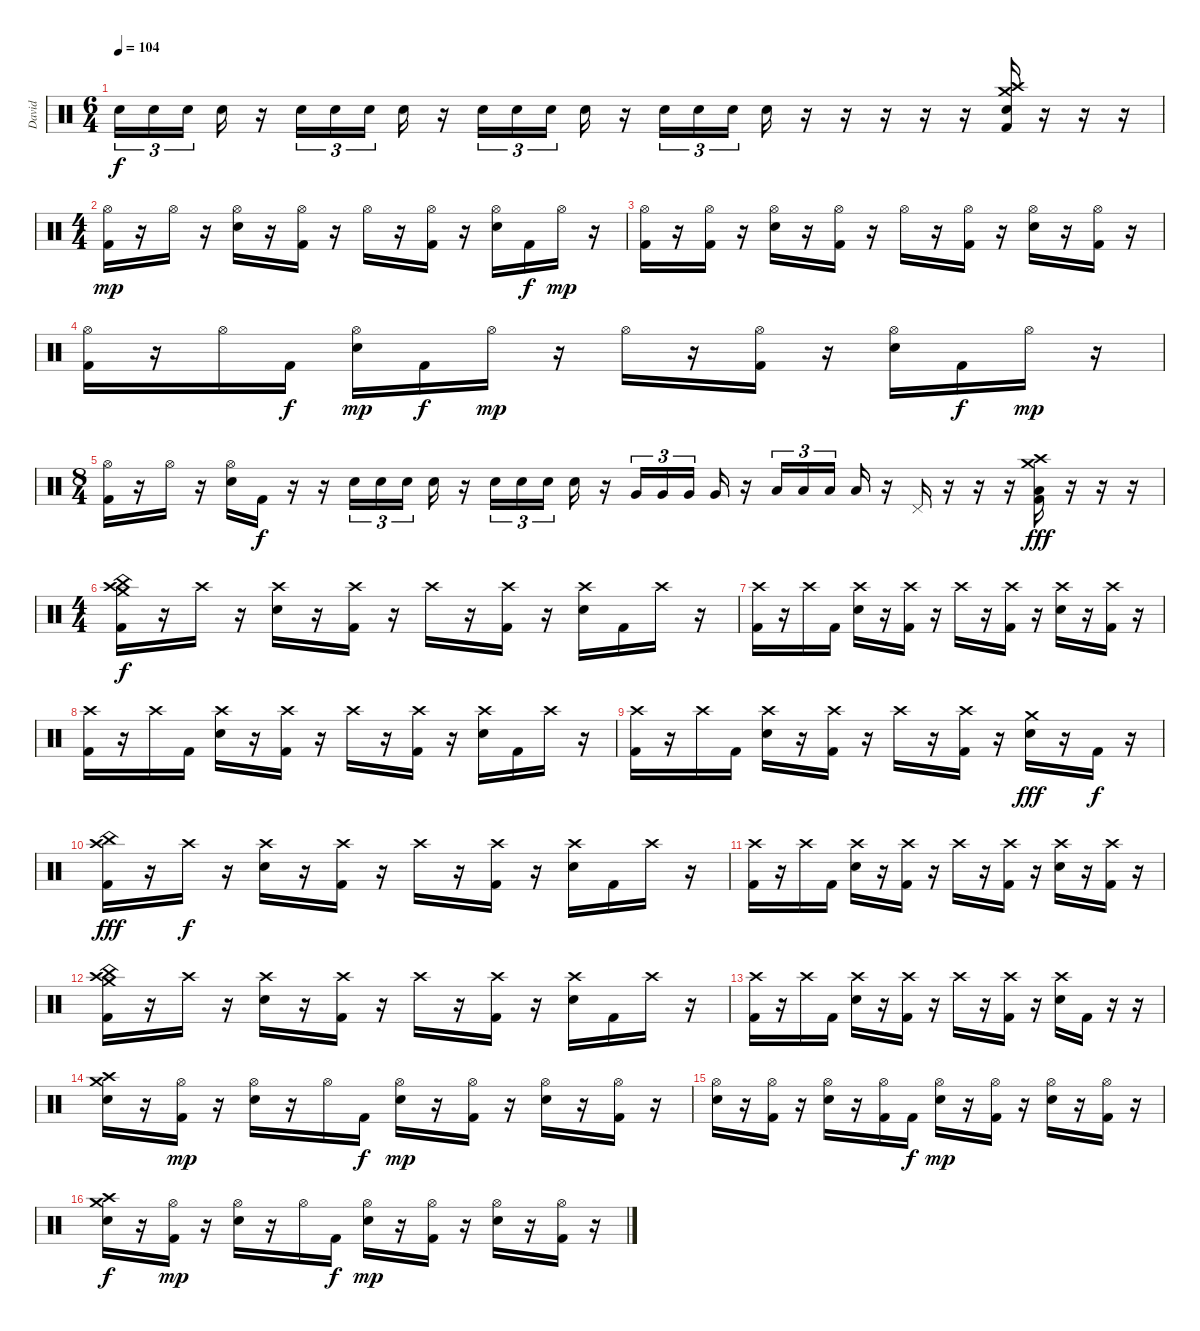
\track ("David" "David") {instrument percussion}
\staff {score}
\articulation defaults
\ts (6 4)
\tempo 104
\clef neutral
\ks c "Snare (hit) 2".16{tu (3 2) dy f} "Snare (hit) 2".16{tu (3 2)} "Snare (hit) 2".16{tu (3 2)} "Snare (hit) 2".16
r.16 "Snare (hit) 2".16{tu (3 2)} "Snare (hit) 2".16{tu (3 2)} "Snare (hit) 2".16{tu (3 2)} "Snare (hit) 2".16 r.16 "Snare (hit) 2".16{tu (3 2)} "Snare (hit) 2".16{tu (3 2)} "Snare (hit) 2".16{tu (3 2)} "Snare (hit) 2".16 r.16 "Snare (hit) 2".16{tu (3 2)} "Snare (hit) 2".16{tu (3 2)} "Snare (hit) 2".16{tu (3 2)} "Snare (hit) 2".16 r.16 r.16 r.16 r.16 r.16 ("Crash medium (hit)" "Crash high (hit)" "Snare (hit) 2" "Kick (hit) 2").16 r.16 r.16 r.16 |
\ts (4 4)
("Hi-Hat (open)" "Kick (hit) 2").16{dy mp} r.16 "Hi-Hat (open)".16 r.16 ("Hi-Hat (open)" "Snare (hit) 2").16 r.16 ("Hi-Hat (open)" "Kick (hit) 2").16 r.16 "Hi-Hat (open)".16 r.16 ("Hi-Hat (open)" "Kick (hit) 2").16 r.16 ("Hi-Hat (open)" "Snare (hit) 2").16 "Kick (hit) 2".16{dy f} "Hi-Hat (open)".16{dy mp} r.16 |
("Hi-Hat (open)" "Kick (hit) 2").16 r.16 ("Hi-Hat (open)" "Kick (hit) 2").16 r.16 ("Hi-Hat (open)" "Snare (hit) 2").16 r.16 ("Hi-Hat (open)" "Kick (hit) 2").16 r.16 "Hi-Hat (open)".16 r.16 ("Hi-Hat (open)" "Kick (hit) 2").16 r.16 ("Hi-Hat (open)" "Snare (hit) 2").16 r.16 ("Hi-Hat (open)" "Kick (hit) 2").16 r.16 |
("Hi-Hat (open)" "Kick (hit) 2").16 r.16 "Hi-Hat (open)".16 "Kick (hit) 2".16{dy f} ("Hi-Hat (open)" "Snare (hit) 2").16{dy mp} "Kick (hit) 2".16{dy f} "Hi-Hat (open)".16{dy mp} r.16 "Hi-Hat (open)".16 r.16 ("Hi-Hat (open)" "Kick (hit) 2").16 r.16 ("Hi-Hat (open)" "Snare (hit) 2").16 "Kick (hit) 2".16{dy f} "Hi-Hat (open)".16{dy mp} r.16 |
\ts (8 4)
("Hi-Hat (open)" "Kick (hit) 2").16 r.16 "Hi-Hat (open)".16 r.16 ("Hi-Hat (open)" "Snare (hit) 2").16 "Kick (hit) 2".16{dy f} r.16 r.16 "Snare (hit) 2".16{tu (3 2)} "Snare (hit) 2".16{tu (3 2)} "Snare (hit) 2".16{tu (3 2)} "Snare (hit) 2".16 r.16 "Snare (hit) 2".16{tu (3 2)} "Snare (hit) 2".16{tu (3 2)} "Snare (hit) 2".16{tu (3 2)} "Snare (hit) 2".16 r.16 "Very Low Tom (hit)".16{tu (3 2)} "Very Low Tom (hit)".16{tu (3 2)} "Very Low Tom (hit)".16{tu (3 2)} "Very Low Tom (hit)".16 r.16 "Low Floor Tom (hit)".16{tu (3 2)} "Low Floor Tom (hit)".16{tu (3 2)} "Low Floor Tom (hit)".16{tu (3 2)} "Low Floor Tom (hit)".16 r.16 "Pedal Hi-Hat (hit)".16 r.16 r.16 r.16 ("Crash medium (hit)" "Crash high (hit)" "Low Floor Tom (hit)" "Kick (hit) 2").16{dy fff} r.16 r.16 r.16 |
\ts (4 4)
("Crash medium (hit)" "Crash high (hit)" "China (hit)" "Kick (hit) 2").16{dy f} r.16 "Crash high (hit)".16 r.16 ("Crash high (hit)" "Snare (hit) 2").16 r.16 ("Crash high (hit)" "Kick (hit) 2").16 r.16 "Crash high (hit)".16 r.16 ("Crash high (hit)" "Kick (hit) 2").16 r.16 ("Crash high (hit)" "Snare (hit) 2").16 "Kick (hit) 2".16 "Crash high (hit)".16 r.16 |
("Crash high (hit)" "Kick (hit) 2").16 r.16 "Crash high (hit)".16 "Kick (hit) 2".16 ("Crash high (hit)" "Snare (hit) 2").16 r.16 ("Crash high (hit)" "Kick (hit) 2").16 r.16 "Crash high (hit)".16 r.16 ("Crash high (hit)" "Kick (hit) 2").16 r.16 ("Crash high (hit)" "Snare (hit) 2").16 r.16 ("Crash high (hit)" "Kick (hit) 2").16 r.16 |
("Crash high (hit)" "Kick (hit) 2").16 r.16 "Crash high (hit)".16 "Kick (hit) 2".16 ("Crash high (hit)" "Snare (hit) 2").16 r.16 ("Crash high (hit)" "Kick (hit) 2").16 r.16 "Crash high (hit)".16 r.16 ("Crash high (hit)" "Kick (hit) 2").16 r.16 ("Crash high (hit)" "Snare (hit) 2").16 "Kick (hit) 2".16 "Crash high (hit)".16 r.16 |
("Crash high (hit)" "Kick (hit) 2").16 r.16 "Crash high (hit)".16 "Kick (hit) 2".16 ("Crash high (hit)" "Snare (hit) 2").16 r.16 ("Crash high (hit)" "Kick (hit) 2").16 r.16 "Crash high (hit)".16 r.16 ("Crash high (hit)" "Kick (hit) 2").16 r.16 ("Crash medium (hit)" "Snare (hit) 2").16{dy fff} r.16 "Kick (hit) 2".16{dy f} r.16 |
("Crash high (hit)" "China (hit)" "Kick (hit) 2").16{dy fff} r.16 "Crash high (hit)".16{dy f} r.16 ("Crash high (hit)" "Snare (hit) 2").16 r.16 ("Crash high (hit)" "Kick (hit) 2").16 r.16 "Crash high (hit)".16 r.16 ("Crash high (hit)" "Kick (hit) 2").16 r.16 ("Crash high (hit)" "Snare (hit) 2").16 "Kick (hit) 2".16 "Crash high (hit)".16 r.16 |
("Crash high (hit)" "Kick (hit) 2").16 r.16 "Crash high (hit)".16 "Kick (hit) 2".16 ("Crash high (hit)" "Snare (hit) 2").16 r.16 ("Crash high (hit)" "Kick (hit) 2").16 r.16 "Crash high (hit)".16 r.16 ("Crash high (hit)" "Kick (hit) 2").16 r.16 ("Crash high (hit)" "Snare (hit) 2").16 r.16 ("Crash high (hit)" "Kick (hit) 2").16 r.16 |
("Crash medium (hit)" "Crash high (hit)" "China (hit)" "Kick (hit) 2").16 r.16 "Crash high (hit)".16 r.16 ("Crash high (hit)" "Snare (hit) 2").16 r.16 ("Crash high (hit)" "Kick (hit) 2").16 r.16 "Crash high (hit)".16 r.16 ("Crash high (hit)" "Kick (hit) 2").16 r.16 ("Crash high (hit)" "Snare (hit) 2").16 "Kick (hit) 2".16 "Crash high (hit)".16 r.16 |
("Crash high (hit)" "Kick (hit) 2").16 r.16 "Crash high (hit)".16 "Kick (hit) 2".16 ("Crash high (hit)" "Snare (hit) 2").16 r.16 ("Crash high (hit)" "Kick (hit) 2").16 r.16 "Crash high (hit)".16 r.16 ("Crash high (hit)" "Kick (hit) 2").16 r.16 ("Crash high (hit)" "Snare (hit) 2").16 "Kick (hit) 2".16 r.16 r.16 |
("Crash medium (hit)" "Crash high (hit)" "Snare (hit) 2").16 r.16 ("Hi-Hat (open)" "Kick (hit) 2").16{dy mp} r.16 ("Hi-Hat (open)" "Snare (hit) 2").16 r.16 "Hi-Hat (open)".16 "Kick (hit) 2".16{dy f} ("Hi-Hat (open)" "Snare (hit) 2").16{dy mp} r.16 ("Hi-Hat (open)" "Kick (hit) 2").16 r.16 ("Hi-Hat (open)" "Snare (hit) 2").16 r.16 ("Hi-Hat (open)" "Kick (hit) 2").16 r.16 |
("Hi-Hat (open)" "Snare (hit) 2").16 r.16 ("Hi-Hat (open)" "Kick (hit) 2").16 r.16 ("Hi-Hat (open)" "Snare (hit) 2").16 r.16 ("Hi-Hat (open)" "Kick (hit) 2").16 "Kick (hit) 2".16{dy f} ("Hi-Hat (open)" "Snare (hit) 2").16{dy mp} r.16 ("Hi-Hat (open)" "Kick (hit) 2").16 r.16 ("Hi-Hat (open)" "Snare (hit) 2").16 r.16 ("Hi-Hat (open)" "Kick (hit) 2").16 r.16 |
("Crash medium (hit)" "Crash high (hit)" "Snare (hit) 2").16{dy f} r.16 ("Hi-Hat (open)" "Kick (hit) 2").16{dy mp} r.16 ("Hi-Hat (open)" "Snare (hit) 2").16 r.16 "Hi-Hat (open)".16 "Kick (hit) 2".16{dy f} ("Hi-Hat (open)" "Snare (hit) 2").16{dy mp} r.16 ("Hi-Hat (open)" "Kick (hit) 2").16 r.16 ("Hi-Hat (open)" "Snare (hit) 2").16 r.16 ("Hi-Hat (open)" "Kick (hit) 2").16 r.16
